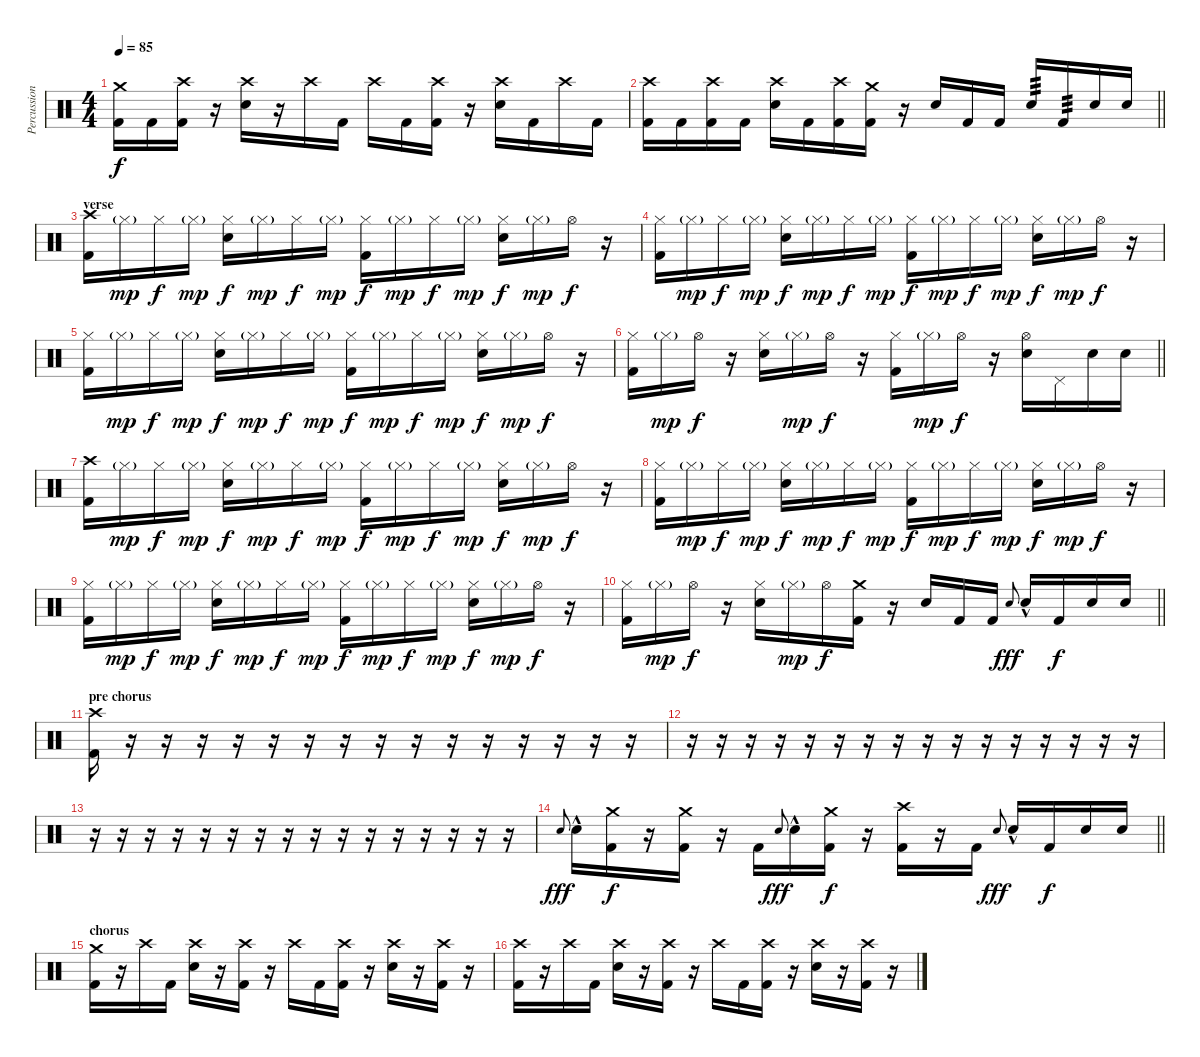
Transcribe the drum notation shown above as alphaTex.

\track ("Percussion" "Percussion") {instrument percussion}
\staff {score}
\articulation defaults
\ts (4 4)
\tempo 85
\clef neutral
\ks c
("Crash medium (hit)" "Kick (hit) 2").16{dy f} "Kick (hit) 2".16 ("Crash high (hit)" "Kick (hit) 2").16 r.16 ("Crash high (hit)" "Snare (hit) 2").16 r.16 "Crash high (hit)".16 "Kick (hit) 2".16 "Crash high (hit)".16 "Kick (hit) 2".16 ("Crash high (hit)" "Kick (hit) 2").16 r.16 ("Crash high (hit)" "Snare (hit) 2").16 "Kick (hit) 2".16 "Crash high (hit)".16 "Kick (hit) 2".16 |
\barLineRight lightlight
("Crash high (hit)" "Kick (hit) 2").16 "Kick (hit) 2".16 ("Crash high (hit)" "Kick (hit) 2").16 "Kick (hit) 2".16 ("Crash high (hit)" "Snare (hit) 2").16 "Kick (hit) 2".16 ("Crash high (hit)" "Kick (hit) 2").16 ("Crash medium (hit)" "Kick (hit) 2").16 r.16 "Snare (hit) 2".16 "Kick (hit) 2".16 "Kick (hit) 2".16 "Snare (hit) 2".16{tp 3} "Kick (hit) 2".16{tp 3} "Snare (hit) 2".16 "Snare (hit) 2".16 |
\section ("" "verse")
("Crash high (hit)" "Kick (hit) 2").16 "Hi-Hat (closed)"{g}.16{dy mp} "Hi-Hat (closed)".16{dy f} "Hi-Hat (closed)"{g}.16{dy mp} ("Hi-Hat (closed)" "Snare (hit) 2").16{dy f} "Hi-Hat (closed)"{g}.16{dy mp} "Hi-Hat (closed)".16{dy f} "Hi-Hat (closed)"{g}.16{dy mp} ("Hi-Hat (closed)" "Kick (hit) 2").16{dy f} "Hi-Hat (closed)"{g}.16{dy mp} "Hi-Hat (closed)".16{dy f} "Hi-Hat (closed)"{g}.16{dy mp} ("Hi-Hat (closed)" "Snare (hit) 2").16{dy f} "Hi-Hat (closed)"{g}.16{dy mp} "Hi-Hat (open)".16{dy f} r.16 |
("Hi-Hat (closed)" "Kick (hit) 2").16 "Hi-Hat (closed)"{g}.16{dy mp} "Hi-Hat (closed)".16{dy f} "Hi-Hat (closed)"{g}.16{dy mp} ("Hi-Hat (closed)" "Snare (hit) 2").16{dy f} "Hi-Hat (closed)"{g}.16{dy mp} "Hi-Hat (closed)".16{dy f} "Hi-Hat (closed)"{g}.16{dy mp} ("Hi-Hat (closed)" "Kick (hit) 2").16{dy f} "Hi-Hat (closed)"{g}.16{dy mp} "Hi-Hat (closed)".16{dy f} "Hi-Hat (closed)"{g}.16{dy mp} ("Hi-Hat (closed)" "Snare (hit) 2").16{dy f} "Hi-Hat (closed)"{g}.16{dy mp} "Hi-Hat (open)".16{dy f} r.16 |
("Hi-Hat (closed)" "Kick (hit) 2").16 "Hi-Hat (closed)"{g}.16{dy mp} "Hi-Hat (closed)".16{dy f} "Hi-Hat (closed)"{g}.16{dy mp} ("Hi-Hat (closed)" "Snare (hit) 2").16{dy f} "Hi-Hat (closed)"{g}.16{dy mp} "Hi-Hat (closed)".16{dy f} "Hi-Hat (closed)"{g}.16{dy mp} ("Hi-Hat (closed)" "Kick (hit) 2").16{dy f} "Hi-Hat (closed)"{g}.16{dy mp} "Hi-Hat (closed)".16{dy f} "Hi-Hat (closed)"{g}.16{dy mp} ("Hi-Hat (closed)" "Snare (hit) 2").16{dy f} "Hi-Hat (closed)"{g}.16{dy mp} "Hi-Hat (open)".16{dy f} r.16 |
\barLineRight lightlight
("Hi-Hat (closed)" "Kick (hit) 2").16 "Hi-Hat (closed)"{g}.16{dy mp} "Hi-Hat (open)".16{dy f} r.16 ("Hi-Hat (closed)" "Snare (hit) 2").16 "Hi-Hat (closed)"{g}.16{dy mp} "Hi-Hat (open)".16{dy f} r.16 ("Hi-Hat (closed)" "Kick (hit) 2").16 "Hi-Hat (closed)"{g}.16{dy mp} "Hi-Hat (open)".16{dy f} r.16 ("Hi-Hat (open)" "Snare (hit) 2").16 "Pedal Hi-Hat (hit)".16 "Snare (hit) 2".16 "Snare (hit) 2".16 |
("Crash high (hit)" "Kick (hit) 2").16 "Hi-Hat (closed)"{g}.16{dy mp} "Hi-Hat (closed)".16{dy f} "Hi-Hat (closed)"{g}.16{dy mp} ("Hi-Hat (closed)" "Snare (hit) 2").16{dy f} "Hi-Hat (closed)"{g}.16{dy mp} "Hi-Hat (closed)".16{dy f} "Hi-Hat (closed)"{g}.16{dy mp} ("Hi-Hat (closed)" "Kick (hit) 2").16{dy f} "Hi-Hat (closed)"{g}.16{dy mp} "Hi-Hat (closed)".16{dy f} "Hi-Hat (closed)"{g}.16{dy mp} ("Hi-Hat (closed)" "Snare (hit) 2").16{dy f} "Hi-Hat (closed)"{g}.16{dy mp} "Hi-Hat (open)".16{dy f} r.16 |
("Hi-Hat (closed)" "Kick (hit) 2").16 "Hi-Hat (closed)"{g}.16{dy mp} "Hi-Hat (closed)".16{dy f} "Hi-Hat (closed)"{g}.16{dy mp} ("Hi-Hat (closed)" "Snare (hit) 2").16{dy f} "Hi-Hat (closed)"{g}.16{dy mp} "Hi-Hat (closed)".16{dy f} "Hi-Hat (closed)"{g}.16{dy mp} ("Hi-Hat (closed)" "Kick (hit) 2").16{dy f} "Hi-Hat (closed)"{g}.16{dy mp} "Hi-Hat (closed)".16{dy f} "Hi-Hat (closed)"{g}.16{dy mp} ("Hi-Hat (closed)" "Snare (hit) 2").16{dy f} "Hi-Hat (closed)"{g}.16{dy mp} "Hi-Hat (open)".16{dy f} r.16 |
("Hi-Hat (closed)" "Kick (hit) 2").16 "Hi-Hat (closed)"{g}.16{dy mp} "Hi-Hat (closed)".16{dy f} "Hi-Hat (closed)"{g}.16{dy mp} ("Hi-Hat (closed)" "Snare (hit) 2").16{dy f} "Hi-Hat (closed)"{g}.16{dy mp} "Hi-Hat (closed)".16{dy f} "Hi-Hat (closed)"{g}.16{dy mp} ("Hi-Hat (closed)" "Kick (hit) 2").16{dy f} "Hi-Hat (closed)"{g}.16{dy mp} "Hi-Hat (closed)".16{dy f} "Hi-Hat (closed)"{g}.16{dy mp} ("Hi-Hat (closed)" "Snare (hit) 2").16{dy f} "Hi-Hat (closed)"{g}.16{dy mp} "Hi-Hat (open)".16{dy f} r.16 |
\barLineRight lightlight
("Hi-Hat (closed)" "Kick (hit) 2").16 "Hi-Hat (closed)"{g}.16{dy mp} "Hi-Hat (open)".16{dy f} r.16 ("Hi-Hat (closed)" "Snare (hit) 2").16 "Hi-Hat (closed)"{g}.16{dy mp} "Hi-Hat (open)".16{dy f} ("Crash medium (hit)" "Kick (hit) 2").16 r.16 "Snare (hit) 2".16 "Kick (hit) 2".16 "Kick (hit) 2".16 "Snare (hit) 2".8{gr onbeat dy fff} "Snare (hit) 2"{hac}.16 "Kick (hit) 2".16{dy f} "Snare (hit) 2".16 "Snare (hit) 2".16 |
\section ("" "pre chorus")
("Crash high (hit)" "Kick (hit) 2").16 r.16 r.16 r.16 r.16 r.16 r.16 r.16 r.16 r.16 r.16 r.16 r.16 r.16 r.16 r.16 |
r.16 r.16 r.16 r.16 r.16 r.16 r.16 r.16 r.16 r.16 r.16 r.16 r.16 r.16 r.16 r.16 |
r.16 r.16 r.16 r.16 r.16 r.16 r.16 r.16 r.16 r.16 r.16 r.16 r.16 r.16 r.16 r.16 |
\barLineRight lightlight "Snare (hit) 2".8{gr onbeat dy fff} "Snare (hit) 2"{hac}.16
("Crash medium (hit)" "Kick (hit) 2").16{dy f} r.16 ("Crash medium (hit)" "Kick (hit) 2").16 r.16 "Kick (hit) 2".16 "Snare (hit) 2".8{gr onbeat dy fff} "Snare (hit) 2"{hac}.16 ("Crash medium (hit)" "Kick (hit) 2").16{dy f} r.16 ("Crash high (hit)" "Kick (hit) 2").16 r.16 "Kick (hit) 2".16 "Snare (hit) 2".8{gr onbeat dy fff} "Snare (hit) 2"{hac}.16 "Kick (hit) 2".16{dy f} "Snare (hit) 2".16 "Snare (hit) 2".16 |
\section ("" "chorus")
("Crash medium (hit)" "Kick (hit) 2").16 r.16 "Crash high (hit)".16 "Kick (hit) 2".16 ("Crash high (hit)" "Snare (hit) 2").16 r.16 ("Crash high (hit)" "Kick (hit) 2").16 r.16 "Crash high (hit)".16 "Kick (hit) 2".16 ("Crash high (hit)" "Kick (hit) 2").16 r.16 ("Crash high (hit)" "Snare (hit) 2").16 r.16 ("Crash high (hit)" "Kick (hit) 2").16 r.16 |
("Crash high (hit)" "Kick (hit) 2").16 r.16 "Crash high (hit)".16 "Kick (hit) 2".16 ("Crash high (hit)" "Snare (hit) 2").16 r.16 ("Crash high (hit)" "Kick (hit) 2").16 r.16 "Crash high (hit)".16 "Kick (hit) 2".16 ("Crash high (hit)" "Kick (hit) 2").16 r.16 ("Crash high (hit)" "Snare (hit) 2").16 r.16 ("Crash high (hit)" "Kick (hit) 2").16 r.16
